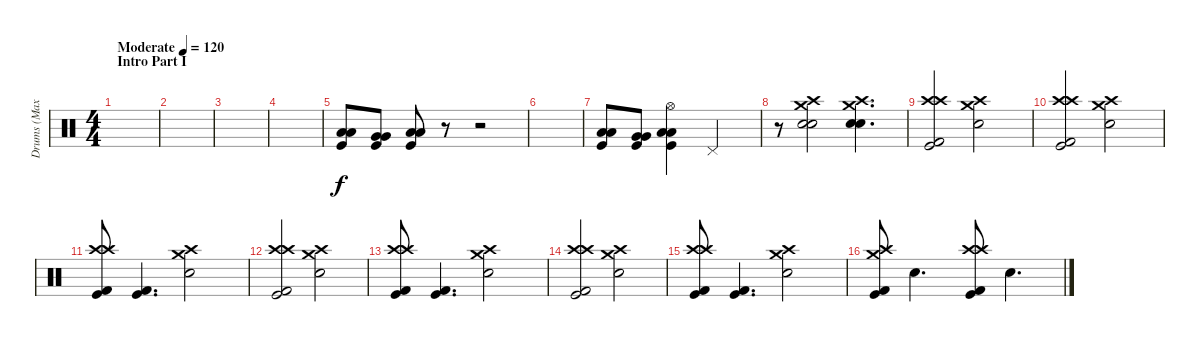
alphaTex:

\track ("Drums (Max Duhamel)" "Drums (Max") {instrument percussion}
\staff {score}
\articulation defaults
\ts (4 4)
\section ("" "Intro Part I")
\tempo (120 "Moderate")
\clef neutral
\ks c
|
|
|
|
("Low Tom (hit)" "Low Tom (hit)" "Kick (hit)").8 ("Very Low Tom (hit)" "Very Low Tom (hit)" "Kick (hit)").8 ("Low Floor Tom (hit)" "Low Floor Tom (hit)" "Kick (hit)").8 r.8 r.2 |
|
("Low Tom (hit)" "Low Tom (hit)" "Kick (hit)").8 ("Very Low Tom (hit)" "Very Low Tom (hit)" "Kick (hit)").8 ("Hi-Hat (open)" "Low Floor Tom (hit)" "Low Floor Tom (hit)" "Kick (hit)").4 "Pedal Hi-Hat (hit)".2 |
r.8 ("Crash high (hit)" "Crash medium (hit)" "Electric Snare (hit)" "Electric Snare (hit)").2 ("Crash high (hit)" "Crash medium (hit)" "Electric Snare (hit)" "Electric Snare (hit)").4{d} |
("Crash high (hit)" "Crash high (hit)" "Kick (hit)" "Kick (hit) 2").2 ("Crash high (hit)" "Crash medium (hit)" "Electric Snare (hit)").2 |
("Crash high (hit)" "Crash high (hit)" "Kick (hit)" "Kick (hit) 2").2 ("Crash high (hit)" "Crash medium (hit)" "Electric Snare (hit)").2 |
("Crash high (hit)" "Crash high (hit)" "Kick (hit)" "Kick (hit) 2").8 ("Kick (hit)" "Kick (hit) 2").4{d} ("Crash high (hit)" "Crash medium (hit)" "Electric Snare (hit)").2 |
("Crash high (hit)" "Crash high (hit)" "Kick (hit)" "Kick (hit) 2").2 ("Crash high (hit)" "Crash medium (hit)" "Electric Snare (hit)").2 |
("Crash high (hit)" "Crash high (hit)" "Kick (hit)" "Kick (hit) 2").8 ("Kick (hit)" "Kick (hit) 2").4{d} ("Crash high (hit)" "Crash medium (hit)" "Electric Snare (hit)").2 |
("Crash high (hit)" "Crash high (hit)" "Kick (hit)" "Kick (hit) 2").2 ("Crash high (hit)" "Crash medium (hit)" "Electric Snare (hit)").2 |
("Crash high (hit)" "Crash high (hit)" "Kick (hit)" "Kick (hit) 2").8 ("Kick (hit)" "Kick (hit) 2").4{d} ("Crash high (hit)" "Crash medium (hit)" "Electric Snare (hit)").2 |
("Crash high (hit)" "Crash medium (hit)" "Kick (hit)" "Kick (hit) 2").8 "Electric Snare (hit)".4{d} ("Crash high (hit)" "Crash high (hit)" "Kick (hit)" "Kick (hit) 2").8 "Electric Snare (hit)".4{d}
